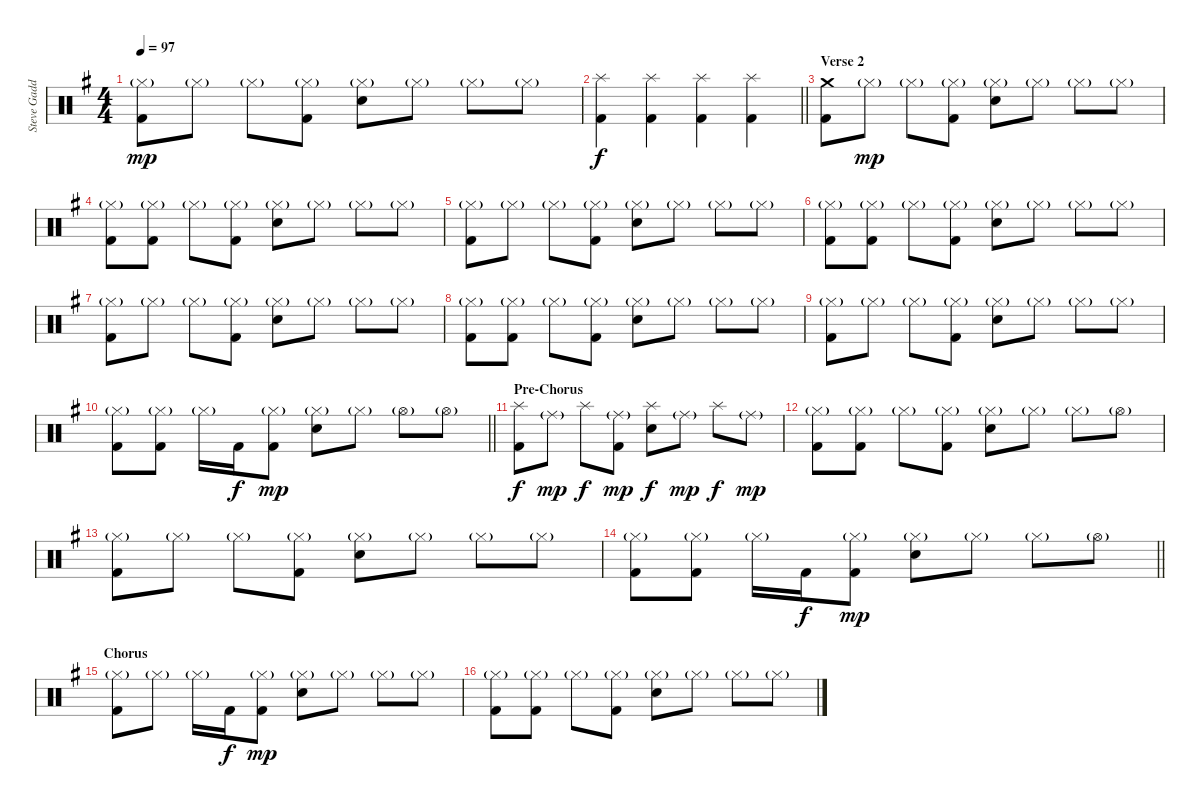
\track ("Steve Gadd" "Steve Gadd") {instrument percussion}
\staff {score}
\articulation defaults
\ts (4 4)
\tempo 97
\clef neutral
\ks g
("Hi-Hat (closed)"{g} "Kick (hit) 2").8{dy mp} "Hi-Hat (closed)"{g}.8 "Hi-Hat (closed)"{g}.8 ("Hi-Hat (closed)"{g} "Kick (hit) 2").8 ("Hi-Hat (closed)"{g} "Snare (hit) 2").8 "Hi-Hat (closed)"{g}.8 "Hi-Hat (closed)"{g}.8 "Hi-Hat (closed)"{g}.8 |
\barLineRight lightlight
("Splash (hit)" "Kick (hit) 2").4{dy f} ("Splash (hit)" "Kick (hit) 2").4 ("Splash (hit)" "Kick (hit) 2").4 ("Splash (hit)" "Kick (hit) 2").4 |
\section ("" "Verse 2")
("Crash medium (hit)" "Kick (hit) 2").8 "Hi-Hat (closed)"{g}.8{dy mp} "Hi-Hat (closed)"{g}.8 ("Hi-Hat (closed)"{g} "Kick (hit) 2").8 ("Hi-Hat (closed)"{g} "Snare (hit) 2").8 "Hi-Hat (closed)"{g}.8 "Hi-Hat (closed)"{g}.8 "Hi-Hat (closed)"{g}.8 |
("Hi-Hat (closed)"{g} "Kick (hit) 2").8 ("Hi-Hat (closed)"{g} "Kick (hit) 2").8 "Hi-Hat (closed)"{g}.8 ("Hi-Hat (closed)"{g} "Kick (hit) 2").8 ("Hi-Hat (closed)"{g} "Snare (hit) 2").8 "Hi-Hat (closed)"{g}.8 "Hi-Hat (closed)"{g}.8 "Hi-Hat (closed)"{g}.8 |
("Hi-Hat (closed)"{g} "Kick (hit) 2").8 "Hi-Hat (closed)"{g}.8 "Hi-Hat (closed)"{g}.8 ("Hi-Hat (closed)"{g} "Kick (hit) 2").8 ("Hi-Hat (closed)"{g} "Snare (hit) 2").8 "Hi-Hat (closed)"{g}.8 "Hi-Hat (closed)"{g}.8 "Hi-Hat (closed)"{g}.8 |
("Hi-Hat (closed)"{g} "Kick (hit) 2").8 ("Hi-Hat (closed)"{g} "Kick (hit) 2").8 "Hi-Hat (closed)"{g}.8 ("Hi-Hat (closed)"{g} "Kick (hit) 2").8 ("Hi-Hat (closed)"{g} "Snare (hit) 2").8 "Hi-Hat (closed)"{g}.8 "Hi-Hat (closed)"{g}.8 "Hi-Hat (closed)"{g}.8 |
("Hi-Hat (closed)"{g} "Kick (hit) 2").8 "Hi-Hat (closed)"{g}.8 "Hi-Hat (closed)"{g}.8 ("Hi-Hat (closed)"{g} "Kick (hit) 2").8 ("Hi-Hat (closed)"{g} "Snare (hit) 2").8 "Hi-Hat (closed)"{g}.8 "Hi-Hat (closed)"{g}.8 "Hi-Hat (closed)"{g}.8 |
("Hi-Hat (closed)"{g} "Kick (hit) 2").8 ("Hi-Hat (closed)"{g} "Kick (hit) 2").8 "Hi-Hat (closed)"{g}.8 ("Hi-Hat (closed)"{g} "Kick (hit) 2").8 ("Hi-Hat (closed)"{g} "Snare (hit) 2").8 "Hi-Hat (closed)"{g}.8 "Hi-Hat (closed)"{g}.8 "Hi-Hat (closed)"{g}.8 |
("Hi-Hat (closed)"{g} "Kick (hit) 2").8 "Hi-Hat (closed)"{g}.8 "Hi-Hat (closed)"{g}.8 ("Hi-Hat (closed)"{g} "Kick (hit) 2").8 ("Hi-Hat (closed)"{g} "Snare (hit) 2").8 "Hi-Hat (closed)"{g}.8 "Hi-Hat (closed)"{g}.8 "Hi-Hat (closed)"{g}.8 |
\barLineRight lightlight
("Hi-Hat (closed)"{g} "Kick (hit) 2").8 ("Hi-Hat (closed)"{g} "Kick (hit) 2").8 "Hi-Hat (closed)"{g}.16 "Kick (hit) 2".16{dy f} ("Hi-Hat (closed)"{g} "Kick (hit) 2").8{dy mp} ("Hi-Hat (closed)"{g} "Snare (hit) 2").8 "Hi-Hat (closed)"{g}.8 "Hi-Hat (open)"{g}.8 "Hi-Hat (open)"{g}.8 |
\section ("" "Pre-Chorus")
("Splash (hit)" "Kick (hit) 2").8{dy f} "Ride (middle)"{g}.8{dy mp} "Splash (hit)".8{dy f} ("Ride (middle)"{g} "Kick (hit) 2").8{dy mp} ("Splash (hit)" "Snare (hit) 2").8{dy f} "Ride (middle)"{g}.8{dy mp} "Splash (hit)".8{dy f} "Ride (middle)"{g}.8{dy mp} |
("Hi-Hat (closed)"{g} "Kick (hit) 2").8 ("Hi-Hat (closed)"{g} "Kick (hit) 2").8 "Hi-Hat (closed)"{g}.8 ("Hi-Hat (closed)"{g} "Kick (hit) 2").8 ("Hi-Hat (closed)"{g} "Snare (hit) 2").8 "Hi-Hat (closed)"{g}.8 "Hi-Hat (closed)"{g}.8 "Hi-Hat (open)"{g}.8 |
("Hi-Hat (closed)"{g} "Kick (hit) 2").8 "Hi-Hat (closed)"{g}.8 "Hi-Hat (closed)"{g}.8 ("Hi-Hat (closed)"{g} "Kick (hit) 2").8 ("Hi-Hat (closed)"{g} "Snare (hit) 2").8 "Hi-Hat (closed)"{g}.8 "Hi-Hat (closed)"{g}.8 "Hi-Hat (closed)"{g}.8 |
\barLineRight lightlight
("Hi-Hat (closed)"{g} "Kick (hit) 2").8 ("Hi-Hat (closed)"{g} "Kick (hit) 2").8 "Hi-Hat (closed)"{g}.16 "Kick (hit) 2".16{dy f} ("Hi-Hat (closed)"{g} "Kick (hit) 2").8{dy mp} ("Hi-Hat (closed)"{g} "Snare (hit) 2").8 "Hi-Hat (closed)"{g}.8 "Hi-Hat (closed)"{g}.8 "Hi-Hat (open)"{g}.8 |
\section ("" "Chorus")
("Hi-Hat (closed)"{g} "Kick (hit) 2").8 "Hi-Hat (closed)"{g}.8 "Hi-Hat (closed)"{g}.16 "Kick (hit) 2".16{dy f} ("Hi-Hat (closed)"{g} "Kick (hit) 2").8{dy mp} ("Hi-Hat (closed)"{g} "Snare (hit) 2").8 "Hi-Hat (closed)"{g}.8 "Hi-Hat (closed)"{g}.8 "Hi-Hat (closed)"{g}.8 |
("Hi-Hat (closed)"{g} "Kick (hit) 2").8 ("Hi-Hat (closed)"{g} "Kick (hit) 2").8 "Hi-Hat (closed)"{g}.8 ("Hi-Hat (closed)"{g} "Kick (hit) 2").8 ("Hi-Hat (closed)"{g} "Snare (hit) 2").8 "Hi-Hat (closed)"{g}.8 "Hi-Hat (closed)"{g}.8 "Hi-Hat (closed)"{g}.8
